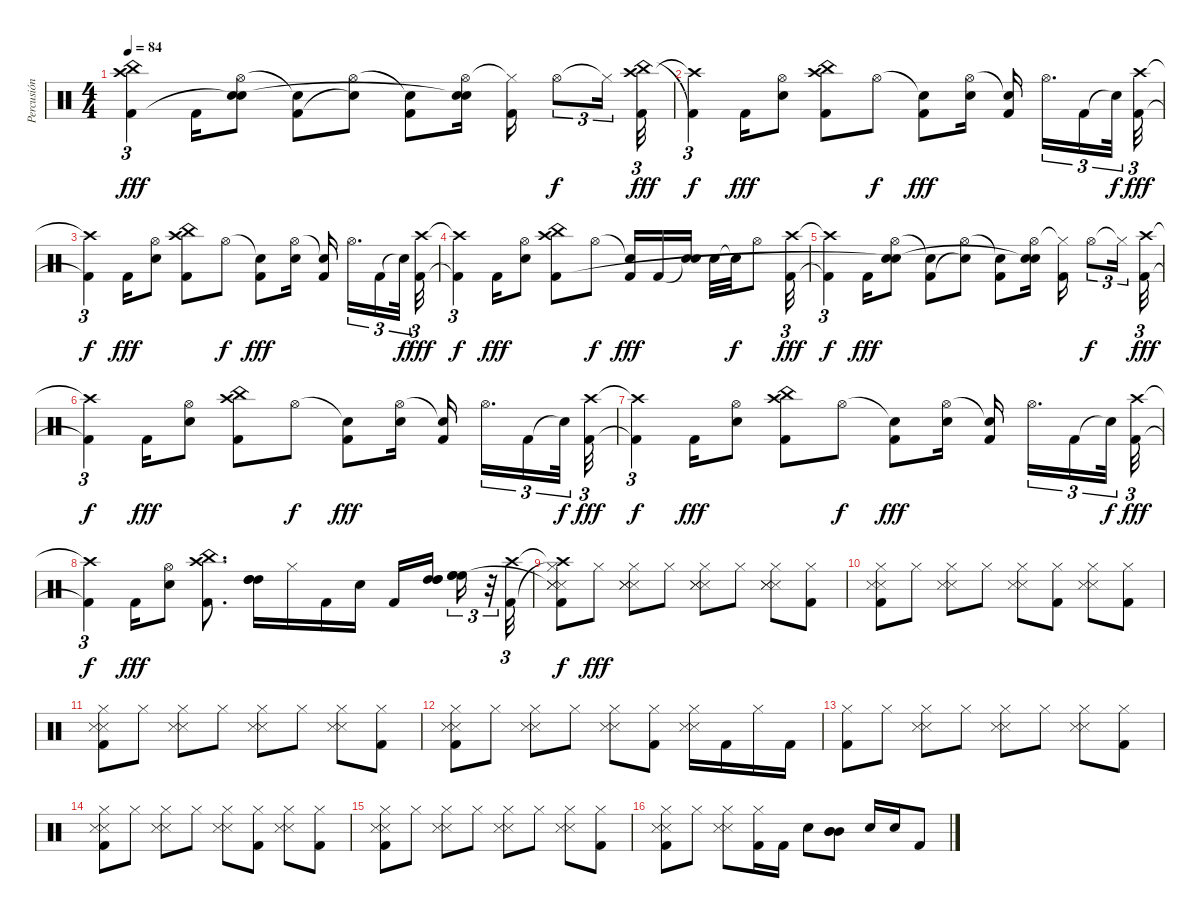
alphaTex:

\track ("Percusión" "Percusión") {instrument percussion}
\staff {score}
\articulation defaults
\ts (4 4)
\tempo 84
\clef neutral
\ks c
("Crash high (hit)" "China (hit)" "Kick (hit) 2").4{tu (3 2) dy fff} "Kick (hit) 2".16 ("Hi-Hat (open)" "Snare (hit) 2" "Snare (hit)"{t}).8 ("Snare (hit)"{t} "Kick (hit) 2").8 ("Hi-Hat (open)" "Snare (hit)"{t}).8 ("Snare (hit)"{t} "Kick (hit) 2").8 ("Hi-Hat (open)" "Snare (hit) 2" "Snare (hit)"{t}).16 ("Hi-Hat (closed)"{t} "Kick (hit) 2").16 "Hi-Hat (open)".8{tu (3 2) dy f} "Hi-Hat (closed)"{t}.16{tu (3 2)} ("Crash high (hit)" "China (hit)" "Kick (hit) 2").32{tu (3 2) dy fff} |
("Crash high (hit)"{t} "Kick (hit) 2"{t}).4{tu (3 2) dy f} "Kick (hit) 2".16{dy fff} ("Hi-Hat (open)" "Snare (hit) 2").8 ("Crash high (hit)" "China (hit)" "Kick (hit) 2").8 "Hi-Hat (open)".8{dy f} ("Snare (hit)"{t} "Kick (hit) 2").8{dy fff} ("Hi-Hat (open)" "Snare (hit) 2").16 ("Snare (hit)"{t} "Kick (hit) 2").16{beam splitsecondary} "Hi-Hat (open)".16{d tu (3 2)} "Kick (hit) 2".16{tu (3 2)} "Snare (hit)"{t}.32{tu (3 2) dy f} ("Crash high (hit)" "Kick (hit) 2").32{tu (3 2) dy fff} |
("Crash high (hit)"{t} "Kick (hit) 2"{t}).4{tu (3 2) dy f} "Kick (hit) 2".16{dy fff} ("Hi-Hat (open)" "Snare (hit) 2").8 ("Crash high (hit)" "China (hit)" "Kick (hit) 2").8 "Hi-Hat (open)".8{dy f} ("Snare (hit)"{t} "Kick (hit) 2").8{dy fff} ("Hi-Hat (open)" "Snare (hit) 2").16 ("Snare (hit)"{t} "Kick (hit) 2").16{beam splitsecondary} "Hi-Hat (open)".16{d tu (3 2)} "Kick (hit) 2".16{tu (3 2)} "Snare (hit)"{t}.32{tu (3 2) dy f} ("Crash high (hit)" "Kick (hit) 2").32{tu (3 2) dy fff} |
("Crash high (hit)"{t} "Kick (hit) 2"{t}).4{tu (3 2) dy f} "Kick (hit) 2".16{dy fff} ("Hi-Hat (open)" "Snare (hit) 2").8 ("Crash high (hit)" "China (hit)" "Kick (hit) 2").8 "Hi-Hat (open)".8{dy f} ("Snare (hit)"{t} "Kick (hit) 2").16{dy fff} "Kick (hit) 2".16 ("Snare (hit)"{t} "Snare (hit) 2").16 "Snare (hit) 2".32 "Snare (hit)"{t}.32{dy f} "Hi-Hat (open)".8 ("Crash high (hit)" "Kick (hit) 2").32{tu (3 2) dy fff} |
("Crash high (hit)"{t} "Kick (hit) 2"{t}).4{tu (3 2) dy f} "Kick (hit) 2".16{dy fff} ("Hi-Hat (open)" "Snare (hit) 2" "Snare (hit)"{t}).8 ("Snare (hit)"{t} "Kick (hit) 2").8 ("Hi-Hat (open)" "Snare (hit)"{t}).8 ("Snare (hit)"{t} "Kick (hit) 2").8 ("Hi-Hat (open)" "Snare (hit) 2" "Snare (hit)"{t}).16 ("Hi-Hat (closed)"{t} "Kick (hit) 2").16 "Hi-Hat (open)".8{tu (3 2) dy f} "Hi-Hat (closed)"{t}.16{tu (3 2)} ("Crash high (hit)" "Kick (hit) 2").32{tu (3 2) dy fff} |
("Crash high (hit)"{t} "Kick (hit) 2"{t}).4{tu (3 2) dy f} "Kick (hit) 2".16{dy fff} ("Hi-Hat (open)" "Snare (hit) 2").8 ("Crash high (hit)" "China (hit)" "Kick (hit) 2").8 "Hi-Hat (open)".8{dy f} ("Snare (hit)"{t} "Kick (hit) 2").8{dy fff} ("Hi-Hat (open)" "Snare (hit) 2").16 ("Snare (hit)"{t} "Kick (hit) 2").16{beam splitsecondary} "Hi-Hat (open)".16{d tu (3 2)} "Kick (hit) 2".16{tu (3 2)} "Snare (hit)"{t}.32{tu (3 2) dy f} ("Crash high (hit)" "Kick (hit) 2").32{tu (3 2) dy fff} |
("Crash high (hit)"{t} "Kick (hit) 2"{t}).4{tu (3 2) dy f} "Kick (hit) 2".16{dy fff} ("Hi-Hat (open)" "Snare (hit) 2").8 ("Crash high (hit)" "China (hit)" "Kick (hit) 2").8 "Hi-Hat (open)".8{dy f} ("Snare (hit)"{t} "Kick (hit) 2").8{dy fff} ("Hi-Hat (open)" "Snare (hit) 2").16 ("Snare (hit)"{t} "Kick (hit) 2").16{beam splitsecondary} "Hi-Hat (open)".16{d tu (3 2)} "Kick (hit) 2".16{tu (3 2)} "Snare (hit)"{t}.32{tu (3 2) dy f} ("Crash high (hit)" "Kick (hit) 2").32{tu (3 2) dy fff} |
("Crash high (hit)"{t} "Kick (hit) 2"{t}).4{tu (3 2) dy f} "Kick (hit) 2".16{dy fff} ("Hi-Hat (open)" "Snare (hit) 2").8 ("Crash high (hit)" "China (hit)" "Kick (hit) 2").8{d} ("High Tom (hit)" "High Tom (hit)" "High Tom (hit)").16 "Hi-Hat (closed)".16 "Kick (hit) 2".16 "Snare (hit) 2".16 "Kick (hit) 2".16 ("High Tom (hit)" "High Tom (hit)" "High Tom (hit)").16{beam splitsecondary} ("High Floor Tom (hit)" "High Floor Tom (hit)" "High Floor Tom (hit)").16{tu (3 2)} r.32{tu (3 2)} ("Crash high (hit)" "Kick (hit) 2").32{tu (3 2)} |
("Crash high (hit)"{t} "Hi-Hat (closed)"{t} "Snare (side stick) 3"{t} "Snare (side stick) 3" "Snare (side stick) 3" "Kick (hit) 2").8{dy f} "Hi-Hat (closed)".8{dy fff} ("Hi-Hat (closed)" "Snare (side stick) 3" "Snare (side stick) 3" "Snare (side stick) 3").8 "Hi-Hat (closed)".8 ("Hi-Hat (closed)" "Snare (side stick) 3" "Snare (side stick) 3" "Snare (side stick) 3").8 "Hi-Hat (closed)".8 ("Hi-Hat (closed)" "Snare (side stick) 3" "Snare (side stick) 3" "Snare (side stick) 3").8 ("Hi-Hat (closed)" "Kick (hit) 2").8 |
("Hi-Hat (closed)" "Snare (side stick) 3" "Snare (side stick) 3" "Kick (hit) 2").8 "Hi-Hat (closed)".8 ("Hi-Hat (closed)" "Snare (side stick) 3" "Snare (side stick) 3").8 "Hi-Hat (closed)".8 ("Hi-Hat (closed)" "Snare (side stick) 3" "Snare (side stick) 3").8 ("Hi-Hat (closed)" "Kick (hit) 2").8 ("Hi-Hat (closed)" "Snare (side stick) 3" "Snare (side stick) 3").8 ("Hi-Hat (closed)" "Kick (hit) 2").8 |
("Hi-Hat (closed)" "Snare (side stick) 3" "Snare (side stick) 3" "Kick (hit) 2").8 "Hi-Hat (closed)".8 ("Hi-Hat (closed)" "Snare (side stick) 3" "Snare (side stick) 3").8 "Hi-Hat (closed)".8 ("Hi-Hat (closed)" "Snare (side stick) 3" "Snare (side stick) 3").8 "Hi-Hat (closed)".8 ("Hi-Hat (closed)" "Snare (side stick) 3" "Snare (side stick) 3").8 ("Hi-Hat (closed)" "Kick (hit) 2").8 |
("Hi-Hat (closed)" "Snare (side stick) 3" "Snare (side stick) 3" "Kick (hit) 2").8 "Hi-Hat (closed)".8 ("Hi-Hat (closed)" "Snare (side stick) 3" "Snare (side stick) 3").8 "Hi-Hat (closed)".8 ("Hi-Hat (closed)" "Snare (side stick) 3" "Snare (side stick) 3").8 ("Hi-Hat (closed)" "Kick (hit) 2").8 ("Hi-Hat (closed)" "Snare (side stick) 3" "Snare (side stick) 3").16 "Kick (hit) 2".16 "Hi-Hat (closed)".16 "Kick (hit) 2".16 |
("Hi-Hat (closed)" "Kick (hit) 2").8 "Hi-Hat (closed)".8 ("Hi-Hat (closed)" "Snare (side stick) 3" "Snare (side stick) 3").8 "Hi-Hat (closed)".8 ("Hi-Hat (closed)" "Snare (side stick) 3" "Snare (side stick) 3").8 "Hi-Hat (closed)".8 ("Hi-Hat (closed)" "Snare (side stick) 3" "Snare (side stick) 3").8 ("Hi-Hat (closed)" "Kick (hit) 2").8 |
("Hi-Hat (closed)" "Snare (side stick) 3" "Snare (side stick) 3" "Kick (hit) 2").8 "Hi-Hat (closed)".8 ("Hi-Hat (closed)" "Snare (side stick) 3" "Snare (side stick) 3").8 "Hi-Hat (closed)".8 ("Hi-Hat (closed)" "Snare (side stick) 3" "Snare (side stick) 3").8 ("Hi-Hat (closed)" "Kick (hit) 2").8 ("Hi-Hat (closed)" "Snare (side stick) 3" "Snare (side stick) 3").8 ("Hi-Hat (closed)" "Kick (hit) 2").8 |
("Hi-Hat (closed)" "Snare (side stick) 3" "Snare (side stick) 3" "Kick (hit) 2").8 "Hi-Hat (closed)".8 ("Hi-Hat (closed)" "Snare (side stick) 3" "Snare (side stick) 3").8 "Hi-Hat (closed)".8 ("Hi-Hat (closed)" "Snare (side stick) 3" "Snare (side stick) 3").8 "Hi-Hat (closed)".8 ("Hi-Hat (closed)" "Snare (side stick) 3" "Snare (side stick) 3").8 ("Hi-Hat (closed)" "Kick (hit) 2").8 |
("Hi-Hat (closed)" "Snare (side stick) 3" "Snare (side stick) 3" "Kick (hit) 2").8 "Hi-Hat (closed)".8 ("Hi-Hat (closed)" "Snare (side stick) 3" "Snare (side stick) 3").8 ("Hi-Hat (closed)" "Kick (hit) 2").16 "Kick (hit) 2".16 "Snare (hit) 2".8 ("Mid Tom (hit)" "Mid Tom (hit)" "Mid Tom (hit)").8 "Snare (hit) 2".16 "Snare (hit) 2".16 "Kick (hit) 2".8
